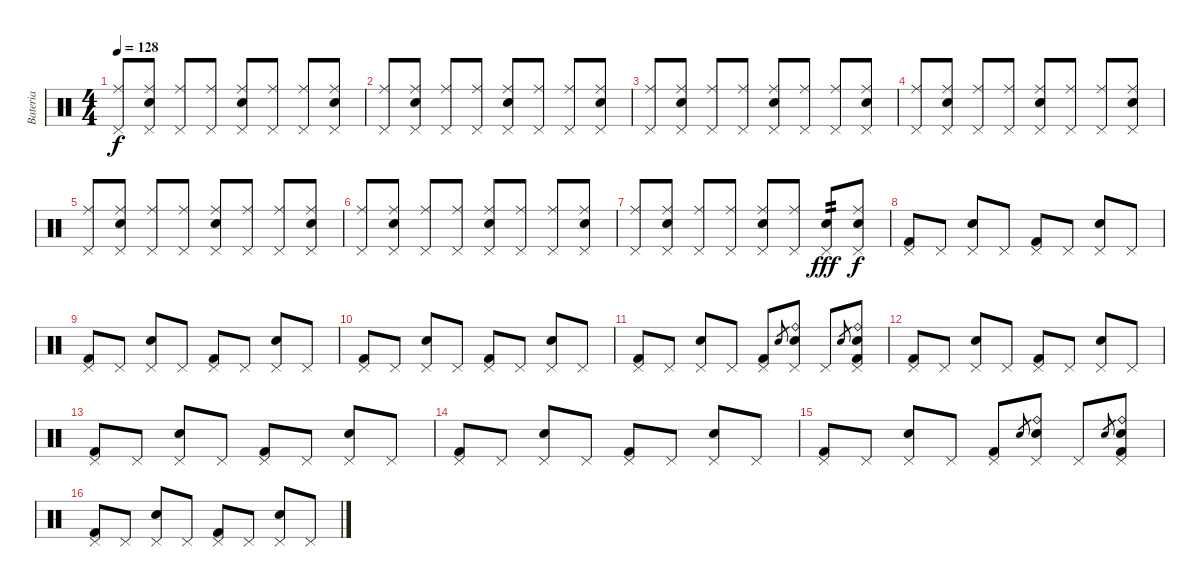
\track ("Bateria" "Bateria") {instrument percussion}
\staff {score}
\articulation defaults
\ts (4 4)
\tempo 128
\clef neutral
\ks c
("Pedal Hi-Hat (hit)" "Ride (middle)").8{dy f} ("Pedal Hi-Hat (hit)" "Electric Snare (hit)" "Ride (middle)").8 ("Pedal Hi-Hat (hit)" "Ride (middle)").8 ("Pedal Hi-Hat (hit)" "Ride (middle)").8 ("Pedal Hi-Hat (hit)" "Electric Snare (hit)" "Ride (middle)").8 ("Pedal Hi-Hat (hit)" "Ride (middle)").8 ("Pedal Hi-Hat (hit)" "Ride (middle)").8 ("Pedal Hi-Hat (hit)" "Electric Snare (hit)" "Ride (middle)").8 |
("Pedal Hi-Hat (hit)" "Ride (middle)").8 ("Pedal Hi-Hat (hit)" "Electric Snare (hit)" "Ride (middle)").8 ("Pedal Hi-Hat (hit)" "Ride (middle)").8 ("Pedal Hi-Hat (hit)" "Ride (middle)").8 ("Pedal Hi-Hat (hit)" "Electric Snare (hit)" "Ride (middle)").8 ("Pedal Hi-Hat (hit)" "Ride (middle)").8 ("Pedal Hi-Hat (hit)" "Ride (middle)").8 ("Pedal Hi-Hat (hit)" "Electric Snare (hit)" "Ride (middle)").8 |
("Pedal Hi-Hat (hit)" "Ride (middle)").8 ("Pedal Hi-Hat (hit)" "Electric Snare (hit)" "Ride (middle)").8 ("Pedal Hi-Hat (hit)" "Ride (middle)").8 ("Pedal Hi-Hat (hit)" "Ride (middle)").8 ("Pedal Hi-Hat (hit)" "Electric Snare (hit)" "Ride (middle)").8 ("Pedal Hi-Hat (hit)" "Ride (middle)").8 ("Pedal Hi-Hat (hit)" "Ride (middle)").8 ("Pedal Hi-Hat (hit)" "Electric Snare (hit)" "Ride (middle)").8 |
("Pedal Hi-Hat (hit)" "Ride (middle)").8 ("Pedal Hi-Hat (hit)" "Electric Snare (hit)" "Ride (middle)").8 ("Pedal Hi-Hat (hit)" "Ride (middle)").8 ("Pedal Hi-Hat (hit)" "Ride (middle)").8 ("Pedal Hi-Hat (hit)" "Electric Snare (hit)" "Ride (middle)").8 ("Pedal Hi-Hat (hit)" "Ride (middle)").8 ("Pedal Hi-Hat (hit)" "Ride (middle)").8 ("Pedal Hi-Hat (hit)" "Electric Snare (hit)" "Ride (middle)").8 |
("Pedal Hi-Hat (hit)" "Ride (middle)").8 ("Pedal Hi-Hat (hit)" "Electric Snare (hit)" "Ride (middle)").8 ("Pedal Hi-Hat (hit)" "Ride (middle)").8 ("Pedal Hi-Hat (hit)" "Ride (middle)").8 ("Pedal Hi-Hat (hit)" "Electric Snare (hit)" "Ride (middle)").8 ("Pedal Hi-Hat (hit)" "Ride (middle)").8 ("Pedal Hi-Hat (hit)" "Ride (middle)").8 ("Pedal Hi-Hat (hit)" "Electric Snare (hit)" "Ride (middle)").8 |
("Pedal Hi-Hat (hit)" "Ride (middle)").8 ("Pedal Hi-Hat (hit)" "Electric Snare (hit)" "Ride (middle)").8 ("Pedal Hi-Hat (hit)" "Ride (middle)").8 ("Pedal Hi-Hat (hit)" "Ride (middle)").8 ("Pedal Hi-Hat (hit)" "Electric Snare (hit)" "Ride (middle)").8 ("Pedal Hi-Hat (hit)" "Ride (middle)").8 ("Pedal Hi-Hat (hit)" "Ride (middle)").8 ("Pedal Hi-Hat (hit)" "Electric Snare (hit)" "Ride (middle)").8 |
("Pedal Hi-Hat (hit)" "Ride (middle)").8 ("Pedal Hi-Hat (hit)" "Electric Snare (hit)" "Ride (middle)").8 ("Pedal Hi-Hat (hit)" "Ride (middle)").8 ("Pedal Hi-Hat (hit)" "Ride (middle)").8 ("Pedal Hi-Hat (hit)" "Electric Snare (hit)" "Ride (middle)").8 ("Pedal Hi-Hat (hit)" "Ride (middle)").8 ("Pedal Hi-Hat (hit)" "Electric Snare (hit)").8{tp 2 dy fff} ("Pedal Hi-Hat (hit)" "Electric Snare (hit)" "Ride (middle)").8{dy f} |
("Pedal Hi-Hat (hit)" "Kick (hit) 2").8 "Pedal Hi-Hat (hit)".8 ("Pedal Hi-Hat (hit)" "Electric Snare (hit)").8 "Pedal Hi-Hat (hit)".8 ("Pedal Hi-Hat (hit)" "Kick (hit) 2").8 "Pedal Hi-Hat (hit)".8 ("Pedal Hi-Hat (hit)" "Electric Snare (hit)").8 "Pedal Hi-Hat (hit)".8 |
("Pedal Hi-Hat (hit)" "Kick (hit) 2").8 "Pedal Hi-Hat (hit)".8 ("Pedal Hi-Hat (hit)" "Electric Snare (hit)").8 "Pedal Hi-Hat (hit)".8 ("Pedal Hi-Hat (hit)" "Kick (hit) 2").8 "Pedal Hi-Hat (hit)".8 ("Pedal Hi-Hat (hit)" "Electric Snare (hit)").8 "Pedal Hi-Hat (hit)".8 |
("Pedal Hi-Hat (hit)" "Kick (hit) 2").8 "Pedal Hi-Hat (hit)".8 ("Pedal Hi-Hat (hit)" "Electric Snare (hit)").8 "Pedal Hi-Hat (hit)".8 ("Pedal Hi-Hat (hit)" "Kick (hit) 2").8 "Pedal Hi-Hat (hit)".8 ("Pedal Hi-Hat (hit)" "Electric Snare (hit)").8 "Pedal Hi-Hat (hit)".8 |
("Pedal Hi-Hat (hit)" "Kick (hit) 2").8 "Pedal Hi-Hat (hit)".8 ("Pedal Hi-Hat (hit)" "Electric Snare (hit)").8 "Pedal Hi-Hat (hit)".8 ("Pedal Hi-Hat (hit)" "Kick (hit) 2").8 "Electric Snare (hit)".8{gr} ("Pedal Hi-Hat (hit)" "Electric Snare (hit)" "Ride (bell)").8 "Pedal Hi-Hat (hit)".8 "Electric Snare (hit)".8{gr} ("Pedal Hi-Hat (hit)" "Electric Snare (hit)" "Kick (hit) 2" "Ride (bell)").8 |
("Pedal Hi-Hat (hit)" "Kick (hit) 2").8 "Pedal Hi-Hat (hit)".8 ("Pedal Hi-Hat (hit)" "Electric Snare (hit)").8 "Pedal Hi-Hat (hit)".8 ("Pedal Hi-Hat (hit)" "Kick (hit) 2").8 "Pedal Hi-Hat (hit)".8 ("Pedal Hi-Hat (hit)" "Electric Snare (hit)").8 "Pedal Hi-Hat (hit)".8 |
("Pedal Hi-Hat (hit)" "Kick (hit) 2").8 "Pedal Hi-Hat (hit)".8 ("Pedal Hi-Hat (hit)" "Electric Snare (hit)").8 "Pedal Hi-Hat (hit)".8 ("Pedal Hi-Hat (hit)" "Kick (hit) 2").8 "Pedal Hi-Hat (hit)".8 ("Pedal Hi-Hat (hit)" "Electric Snare (hit)").8 "Pedal Hi-Hat (hit)".8 |
("Pedal Hi-Hat (hit)" "Kick (hit) 2").8 "Pedal Hi-Hat (hit)".8 ("Pedal Hi-Hat (hit)" "Electric Snare (hit)").8 "Pedal Hi-Hat (hit)".8 ("Pedal Hi-Hat (hit)" "Kick (hit) 2").8 "Pedal Hi-Hat (hit)".8 ("Pedal Hi-Hat (hit)" "Electric Snare (hit)").8 "Pedal Hi-Hat (hit)".8 |
("Pedal Hi-Hat (hit)" "Kick (hit) 2").8 "Pedal Hi-Hat (hit)".8 ("Pedal Hi-Hat (hit)" "Electric Snare (hit)").8 "Pedal Hi-Hat (hit)".8 ("Pedal Hi-Hat (hit)" "Kick (hit) 2").8 "Electric Snare (hit)".8{gr} ("Pedal Hi-Hat (hit)" "Electric Snare (hit)" "Ride (bell)").8 "Pedal Hi-Hat (hit)".8 "Electric Snare (hit)".8{gr} ("Pedal Hi-Hat (hit)" "Electric Snare (hit)" "Kick (hit) 2" "Ride (bell)").8 |
("Pedal Hi-Hat (hit)" "Kick (hit) 2").8 "Pedal Hi-Hat (hit)".8 ("Pedal Hi-Hat (hit)" "Electric Snare (hit)").8 "Pedal Hi-Hat (hit)".8 ("Pedal Hi-Hat (hit)" "Kick (hit) 2").8 "Pedal Hi-Hat (hit)".8 ("Pedal Hi-Hat (hit)" "Electric Snare (hit)").8 "Pedal Hi-Hat (hit)".8
